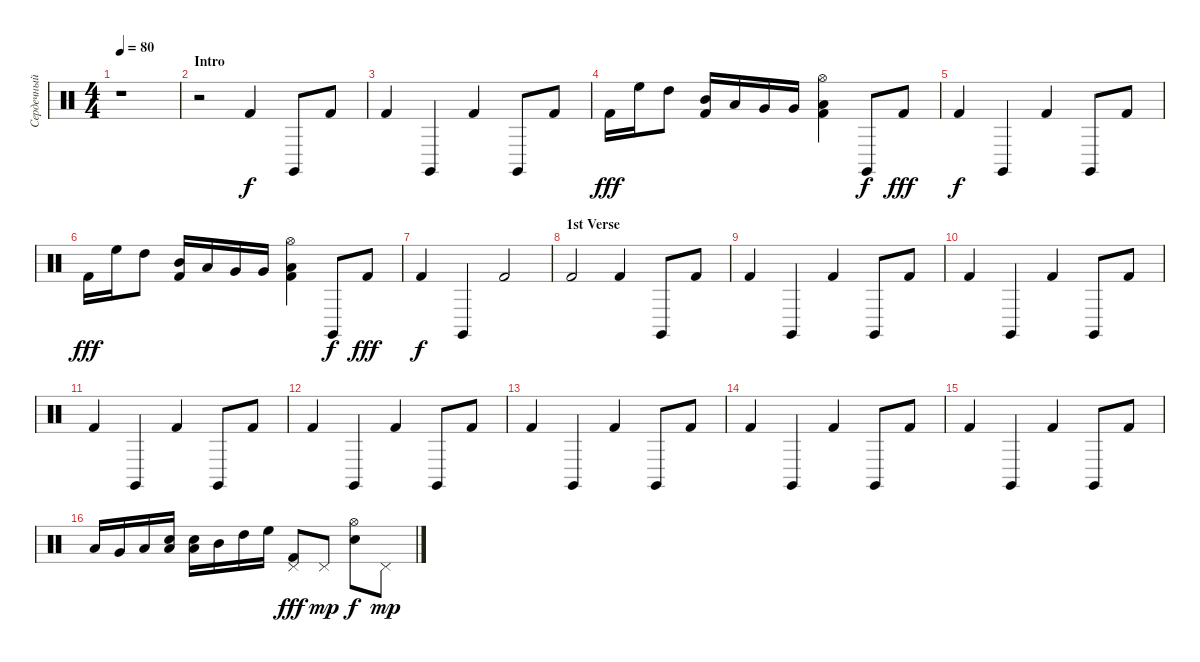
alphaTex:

\track ("Сердечный (Ударные)" "Сердечный ") {instrument percussion}
\staff {score}
\articulation defaults
\ts (4 4)
\tempo 80
\clef neutral
\ks c
r.1{dy f} |
\section ("" "Intro")
r.2 "Kick (hit) 2".4 "Claves (hit)".8 "Kick (hit) 2".8 |
"Kick (hit) 2".4 "Claves (hit)".4 "Kick (hit) 2".4 "Claves (hit)".8 "Kick (hit) 2".8 |
"Kick (hit) 2".16{dy fff} "High Floor Tom (hit)".16 "High Tom (hit)".8 ("Mid Tom (hit)" "Kick (hit) 2").16 "Low Tom (hit)".16 "Very Low Tom (hit)".16 "Very Low Tom (hit)".16 ("Low Floor Tom (hit)" "Kick (hit) 2" "Hi-Hat (open)").4 "Claves (hit)".8{dy f} "Kick (hit) 2".8{dy fff} |
"Kick (hit) 2".4{dy f} "Claves (hit)".4 "Kick (hit) 2".4 "Claves (hit)".8 "Kick (hit) 2".8 |
"Kick (hit) 2".16{dy fff} "High Floor Tom (hit)".16 "High Tom (hit)".8 ("Mid Tom (hit)" "Kick (hit) 2").16 "Low Tom (hit)".16 "Very Low Tom (hit)".16 "Very Low Tom (hit)".16 ("Low Floor Tom (hit)" "Kick (hit) 2" "Hi-Hat (open)").4 "Claves (hit)".8{dy f} "Kick (hit) 2".8{dy fff} |
"Kick (hit) 2".4{dy f} "Claves (hit)".4 "Kick (hit) 2".2 |
\section ("" "1st Verse")
"Kick (hit) 2".2 "Kick (hit) 2".4 "Claves (hit)".8 "Kick (hit) 2".8 |
"Kick (hit) 2".4 "Claves (hit)".4 "Kick (hit) 2".4 "Claves (hit)".8 "Kick (hit) 2".8 |
"Kick (hit) 2".4 "Claves (hit)".4 "Kick (hit) 2".4 "Claves (hit)".8 "Kick (hit) 2".8 |
"Kick (hit) 2".4 "Claves (hit)".4 "Kick (hit) 2".4 "Claves (hit)".8 "Kick (hit) 2".8 |
"Kick (hit) 2".4 "Claves (hit)".4 "Kick (hit) 2".4 "Claves (hit)".8 "Kick (hit) 2".8 |
"Kick (hit) 2".4 "Claves (hit)".4 "Kick (hit) 2".4 "Claves (hit)".8 "Kick (hit) 2".8 |
"Kick (hit) 2".4 "Claves (hit)".4 "Kick (hit) 2".4 "Claves (hit)".8 "Kick (hit) 2".8 |
"Kick (hit) 2".4 "Claves (hit)".4 "Kick (hit) 2".4 "Claves (hit)".8 "Kick (hit) 2".8 |
"Low Tom (hit)".16 "Very Low Tom (hit)".16 "Low Floor Tom (hit)".16 ("Low Floor Tom (hit)" "Electric Snare (hit)").16 ("Electric Snare (hit)" "Low Tom (hit)").16 "Mid Tom (hit)".16 "High Tom (hit)".16 "High Floor Tom (hit)".16 ("Pedal Hi-Hat (hit)" "Kick (hit) 2").8{dy fff} "Pedal Hi-Hat (hit)".8{dy mp} ("Hi-Hat (open)" "Electric Snare (hit)").8{dy f} "Pedal Hi-Hat (hit)".8{dy mp}
